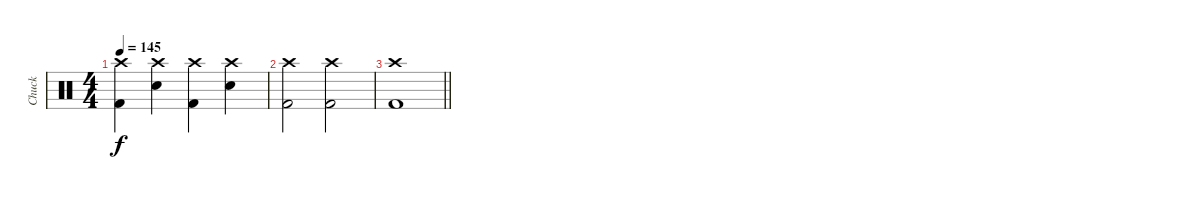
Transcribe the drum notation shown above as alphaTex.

\track ("Chuck" "Chuck") {instrument percussion}
\staff {score}
\articulation defaults
\ts (4 4)
\tempo 145
\clef neutral
\ks c
("Crash high (hit)" "Kick (hit) 2").4{dy f} ("Crash high (hit)" "Snare (hit) 2").4 ("Crash high (hit)" "Kick (hit) 2").4 ("Crash high (hit)" "Snare (hit) 2").4 |
("Crash high (hit)" "Kick (hit) 2").2 ("Crash high (hit)" "Kick (hit) 2").2 |
\barLineRight lightlight
("Crash high (hit)" "Kick (hit) 2").1
